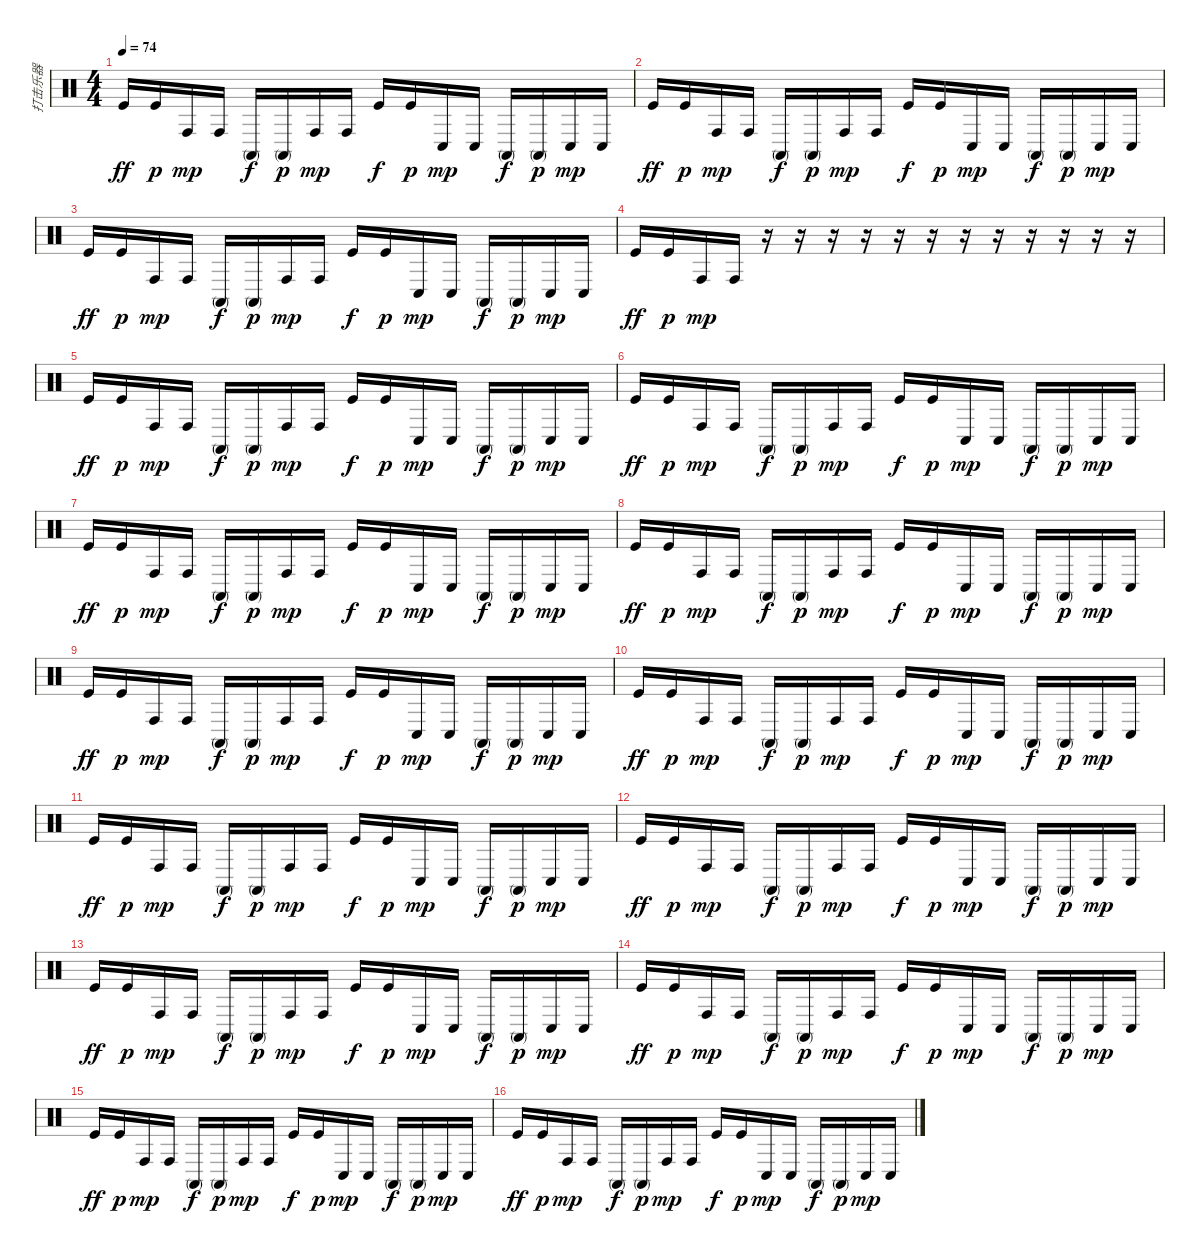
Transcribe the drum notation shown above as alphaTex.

\track ("打击乐器" "打击乐器") {instrument percussion}
\staff {score}
\articulation defaults
\ts (4 4)
\tempo 74
\clef neutral
\ks c "Kick (hit)".16{dy ff} "Kick (hit)".16{dy p} "Conga high (hit)".16{dy mp} "Conga high (hit)".16 "Conga high (mute)".16{dy f} "Conga high (mute)".16{dy p} "Conga high (hit)".16{dy mp} "Conga high (hit)".16 "Kick (hit)".16{dy f} "Kick (hit)".16{dy p} "Conga low (hit)".16{dy mp} "Conga low (hit)".16 "Conga high (mute)".16{dy f} "Conga high (mute)".16{dy p} "Conga low (hit)".16{dy mp} "Conga low (hit)".16
|
"Kick (hit)".16{dy ff} "Kick (hit)".16{dy p} "Conga high (hit)".16{dy mp} "Conga high (hit)".16 "Conga high (mute)".16{dy f} "Conga high (mute)".16{dy p} "Conga high (hit)".16{dy mp} "Conga high (hit)".16 "Kick (hit)".16{dy f} "Kick (hit)".16{dy p} "Conga low (hit)".16{dy mp} "Conga low (hit)".16 "Conga high (mute)".16{dy f} "Conga high (mute)".16{dy p} "Conga low (hit)".16{dy mp} "Conga low (hit)".16 |
"Kick (hit)".16{dy ff} "Kick (hit)".16{dy p} "Conga high (hit)".16{dy mp} "Conga high (hit)".16 "Conga high (mute)".16{dy f} "Conga high (mute)".16{dy p} "Conga high (hit)".16{dy mp} "Conga high (hit)".16 "Kick (hit)".16{dy f} "Kick (hit)".16{dy p} "Conga low (hit)".16{dy mp} "Conga low (hit)".16 "Conga high (mute)".16{dy f} "Conga high (mute)".16{dy p} "Conga low (hit)".16{dy mp} "Conga low (hit)".16 |
"Kick (hit)".16{dy ff} "Kick (hit)".16{dy p} "Conga high (hit)".16{dy mp} "Conga high (hit)".16 r.16 r.16 r.16 r.16 r.16 r.16 r.16 r.16 r.16 r.16 r.16 r.16 |
"Kick (hit)".16{dy ff} "Kick (hit)".16{dy p} "Conga high (hit)".16{dy mp} "Conga high (hit)".16 "Conga high (mute)".16{dy f} "Conga high (mute)".16{dy p} "Conga high (hit)".16{dy mp} "Conga high (hit)".16 "Kick (hit)".16{dy f} "Kick (hit)".16{dy p} "Conga low (hit)".16{dy mp} "Conga low (hit)".16 "Conga high (mute)".16{dy f} "Conga high (mute)".16{dy p} "Conga low (hit)".16{dy mp} "Conga low (hit)".16 |
"Kick (hit)".16{dy ff} "Kick (hit)".16{dy p} "Conga high (hit)".16{dy mp} "Conga high (hit)".16 "Conga high (mute)".16{dy f} "Conga high (mute)".16{dy p} "Conga high (hit)".16{dy mp} "Conga high (hit)".16 "Kick (hit)".16{dy f} "Kick (hit)".16{dy p} "Conga low (hit)".16{dy mp} "Conga low (hit)".16 "Conga high (mute)".16{dy f} "Conga high (mute)".16{dy p} "Conga low (hit)".16{dy mp} "Conga low (hit)".16 |
"Kick (hit)".16{dy ff} "Kick (hit)".16{dy p} "Conga high (hit)".16{dy mp} "Conga high (hit)".16 "Conga high (mute)".16{dy f} "Conga high (mute)".16{dy p} "Conga high (hit)".16{dy mp} "Conga high (hit)".16 "Kick (hit)".16{dy f} "Kick (hit)".16{dy p} "Conga low (hit)".16{dy mp} "Conga low (hit)".16 "Conga high (mute)".16{dy f} "Conga high (mute)".16{dy p} "Conga low (hit)".16{dy mp} "Conga low (hit)".16 |
"Kick (hit)".16{dy ff} "Kick (hit)".16{dy p} "Conga high (hit)".16{dy mp} "Conga high (hit)".16 "Conga high (mute)".16{dy f} "Conga high (mute)".16{dy p} "Conga high (hit)".16{dy mp} "Conga high (hit)".16 "Kick (hit)".16{dy f} "Kick (hit)".16{dy p} "Conga low (hit)".16{dy mp} "Conga low (hit)".16 "Conga high (mute)".16{dy f} "Conga high (mute)".16{dy p} "Conga low (hit)".16{dy mp} "Conga low (hit)".16 |
"Kick (hit)".16{dy ff} "Kick (hit)".16{dy p} "Conga high (hit)".16{dy mp} "Conga high (hit)".16 "Conga high (mute)".16{dy f} "Conga high (mute)".16{dy p} "Conga high (hit)".16{dy mp} "Conga high (hit)".16 "Kick (hit)".16{dy f} "Kick (hit)".16{dy p} "Conga low (hit)".16{dy mp} "Conga low (hit)".16 "Conga high (mute)".16{dy f} "Conga high (mute)".16{dy p} "Conga low (hit)".16{dy mp} "Conga low (hit)".16 |
"Kick (hit)".16{dy ff} "Kick (hit)".16{dy p} "Conga high (hit)".16{dy mp} "Conga high (hit)".16 "Conga high (mute)".16{dy f} "Conga high (mute)".16{dy p} "Conga high (hit)".16{dy mp} "Conga high (hit)".16 "Kick (hit)".16{dy f} "Kick (hit)".16{dy p} "Conga low (hit)".16{dy mp} "Conga low (hit)".16 "Conga high (mute)".16{dy f} "Conga high (mute)".16{dy p} "Conga low (hit)".16{dy mp} "Conga low (hit)".16 |
"Kick (hit)".16{dy ff} "Kick (hit)".16{dy p} "Conga high (hit)".16{dy mp} "Conga high (hit)".16 "Conga high (mute)".16{dy f} "Conga high (mute)".16{dy p} "Conga high (hit)".16{dy mp} "Conga high (hit)".16 "Kick (hit)".16{dy f} "Kick (hit)".16{dy p} "Conga low (hit)".16{dy mp} "Conga low (hit)".16 "Conga high (mute)".16{dy f} "Conga high (mute)".16{dy p} "Conga low (hit)".16{dy mp} "Conga low (hit)".16 |
"Kick (hit)".16{dy ff} "Kick (hit)".16{dy p} "Conga high (hit)".16{dy mp} "Conga high (hit)".16 "Conga high (mute)".16{dy f} "Conga high (mute)".16{dy p} "Conga high (hit)".16{dy mp} "Conga high (hit)".16 "Kick (hit)".16{dy f} "Kick (hit)".16{dy p} "Conga low (hit)".16{dy mp} "Conga low (hit)".16 "Conga high (mute)".16{dy f} "Conga high (mute)".16{dy p} "Conga low (hit)".16{dy mp} "Conga low (hit)".16 |
"Kick (hit)".16{dy ff} "Kick (hit)".16{dy p} "Conga high (hit)".16{dy mp} "Conga high (hit)".16 "Conga high (mute)".16{dy f} "Conga high (mute)".16{dy p} "Conga high (hit)".16{dy mp} "Conga high (hit)".16 "Kick (hit)".16{dy f} "Kick (hit)".16{dy p} "Conga low (hit)".16{dy mp} "Conga low (hit)".16 "Conga high (mute)".16{dy f} "Conga high (mute)".16{dy p} "Conga low (hit)".16{dy mp} "Conga low (hit)".16 |
"Kick (hit)".16{dy ff} "Kick (hit)".16{dy p} "Conga high (hit)".16{dy mp} "Conga high (hit)".16 "Conga high (mute)".16{dy f} "Conga high (mute)".16{dy p} "Conga high (hit)".16{dy mp} "Conga high (hit)".16 "Kick (hit)".16{dy f} "Kick (hit)".16{dy p} "Conga low (hit)".16{dy mp} "Conga low (hit)".16 "Conga high (mute)".16{dy f} "Conga high (mute)".16{dy p} "Conga low (hit)".16{dy mp} "Conga low (hit)".16 |
"Kick (hit)".16{dy ff} "Kick (hit)".16{dy p} "Conga high (hit)".16{dy mp} "Conga high (hit)".16 "Conga high (mute)".16{dy f} "Conga high (mute)".16{dy p} "Conga high (hit)".16{dy mp} "Conga high (hit)".16 "Kick (hit)".16{dy f} "Kick (hit)".16{dy p} "Conga low (hit)".16{dy mp} "Conga low (hit)".16 "Conga high (mute)".16{dy f} "Conga high (mute)".16{dy p} "Conga low (hit)".16{dy mp} "Conga low (hit)".16 |
"Kick (hit)".16{dy ff} "Kick (hit)".16{dy p} "Conga high (hit)".16{dy mp} "Conga high (hit)".16 "Conga high (mute)".16{dy f} "Conga high (mute)".16{dy p} "Conga high (hit)".16{dy mp} "Conga high (hit)".16 "Kick (hit)".16{dy f} "Kick (hit)".16{dy p} "Conga low (hit)".16{dy mp} "Conga low (hit)".16 "Conga high (mute)".16{dy f} "Conga high (mute)".16{dy p} "Conga low (hit)".16{dy mp} "Conga low (hit)".16
